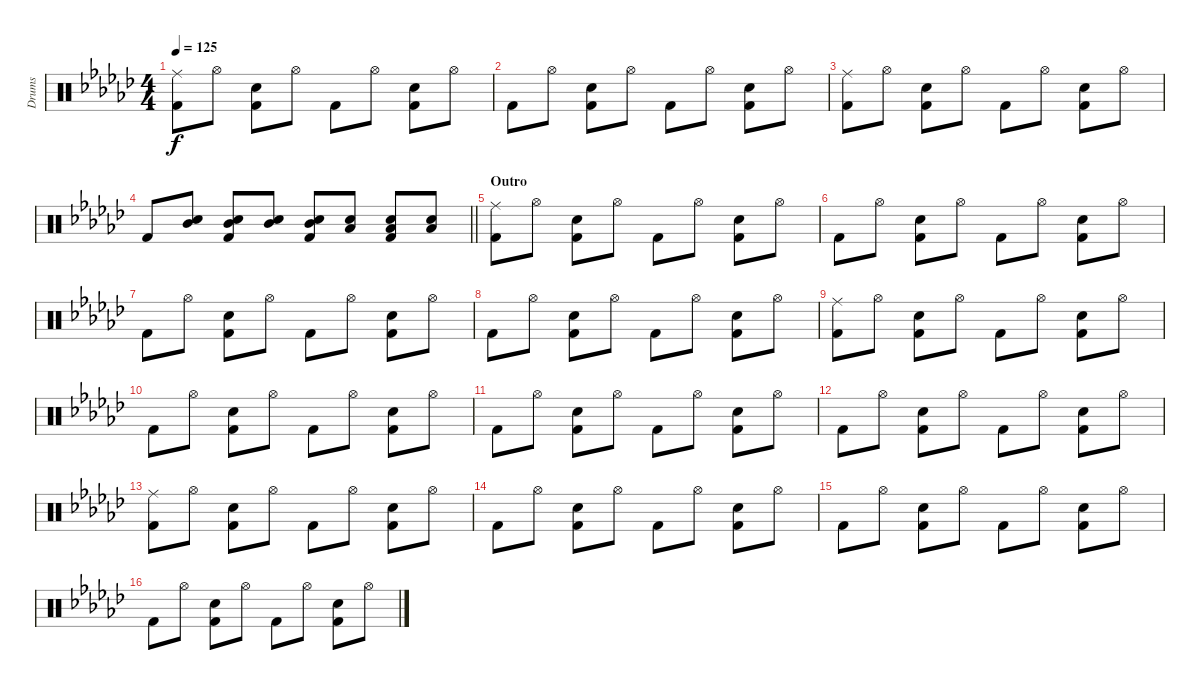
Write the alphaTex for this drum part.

\track ("Drums" "Drums") {instrument percussion}
\staff {score}
\articulation defaults
\ts (4 4)
\tempo 125
\clef neutral
\ks gb
("Ride (middle)" "Kick (hit) 2").8{dy f} "Hi-Hat (open)".8 ("Snare (hit) 2" "Kick (hit) 2").8 "Hi-Hat (open)".8 "Kick (hit) 2".8 "Hi-Hat (open)".8 ("Snare (hit) 2" "Kick (hit) 2").8 "Hi-Hat (open)".8 |
"Kick (hit) 2".8 "Hi-Hat (open)".8 ("Snare (hit) 2" "Kick (hit) 2").8 "Hi-Hat (open)".8 "Kick (hit) 2".8 "Hi-Hat (open)".8 ("Snare (hit) 2" "Kick (hit) 2").8 "Hi-Hat (open)".8 |
("Ride (middle)" "Kick (hit) 2").8 "Hi-Hat (open)".8 ("Snare (hit) 2" "Kick (hit) 2").8 "Hi-Hat (open)".8 "Kick (hit) 2".8 "Hi-Hat (open)".8 ("Snare (hit) 2" "Kick (hit) 2").8 "Hi-Hat (open)".8 |
\barLineRight lightlight "Kick (hit) 2".8
("Mid Tom (hit)" "Snare (hit) 2").8 ("Mid Tom (hit)" "Snare (hit) 2" "Kick (hit) 2").8 ("Mid Tom (hit)" "Snare (hit) 2").8 ("Mid Tom (hit)" "Snare (hit) 2" "Kick (hit) 2").8 ("Snare (hit) 2" "Low Tom (hit)").8 ("Snare (hit) 2" "Low Tom (hit)" "Kick (hit) 2").8 ("Snare (hit) 2" "Low Tom (hit)").8 |
\section ("" "Outro")
("Ride (middle)" "Kick (hit) 2").8 "Hi-Hat (open)".8 ("Snare (hit) 2" "Kick (hit) 2").8 "Hi-Hat (open)".8 "Kick (hit) 2".8 "Hi-Hat (open)".8 ("Snare (hit) 2" "Kick (hit) 2").8 "Hi-Hat (open)".8 |
"Kick (hit) 2".8 "Hi-Hat (open)".8 ("Snare (hit) 2" "Kick (hit) 2").8 "Hi-Hat (open)".8 "Kick (hit) 2".8 "Hi-Hat (open)".8 ("Snare (hit) 2" "Kick (hit) 2").8 "Hi-Hat (open)".8 |
"Kick (hit) 2".8 "Hi-Hat (open)".8 ("Snare (hit) 2" "Kick (hit) 2").8 "Hi-Hat (open)".8 "Kick (hit) 2".8 "Hi-Hat (open)".8 ("Snare (hit) 2" "Kick (hit) 2").8 "Hi-Hat (open)".8 |
"Kick (hit) 2".8 "Hi-Hat (open)".8 ("Snare (hit) 2" "Kick (hit) 2").8 "Hi-Hat (open)".8 "Kick (hit) 2".8 "Hi-Hat (open)".8 ("Snare (hit) 2" "Kick (hit) 2").8 "Hi-Hat (open)".8 |
("Ride (middle)" "Kick (hit) 2").8 "Hi-Hat (open)".8 ("Snare (hit) 2" "Kick (hit) 2").8 "Hi-Hat (open)".8 "Kick (hit) 2".8 "Hi-Hat (open)".8 ("Snare (hit) 2" "Kick (hit) 2").8 "Hi-Hat (open)".8 |
"Kick (hit) 2".8 "Hi-Hat (open)".8 ("Snare (hit) 2" "Kick (hit) 2").8 "Hi-Hat (open)".8 "Kick (hit) 2".8 "Hi-Hat (open)".8 ("Snare (hit) 2" "Kick (hit) 2").8 "Hi-Hat (open)".8 |
"Kick (hit) 2".8 "Hi-Hat (open)".8 ("Snare (hit) 2" "Kick (hit) 2").8 "Hi-Hat (open)".8 "Kick (hit) 2".8 "Hi-Hat (open)".8 ("Snare (hit) 2" "Kick (hit) 2").8 "Hi-Hat (open)".8 |
"Kick (hit) 2".8 "Hi-Hat (open)".8 ("Snare (hit) 2" "Kick (hit) 2").8 "Hi-Hat (open)".8 "Kick (hit) 2".8 "Hi-Hat (open)".8 ("Snare (hit) 2" "Kick (hit) 2").8 "Hi-Hat (open)".8 |
("Ride (middle)" "Kick (hit) 2").8 "Hi-Hat (open)".8 ("Snare (hit) 2" "Kick (hit) 2").8 "Hi-Hat (open)".8 "Kick (hit) 2".8 "Hi-Hat (open)".8 ("Snare (hit) 2" "Kick (hit) 2").8 "Hi-Hat (open)".8 |
"Kick (hit) 2".8 "Hi-Hat (open)".8 ("Snare (hit) 2" "Kick (hit) 2").8 "Hi-Hat (open)".8 "Kick (hit) 2".8 "Hi-Hat (open)".8 ("Snare (hit) 2" "Kick (hit) 2").8 "Hi-Hat (open)".8 |
"Kick (hit) 2".8 "Hi-Hat (open)".8 ("Snare (hit) 2" "Kick (hit) 2").8 "Hi-Hat (open)".8 "Kick (hit) 2".8 "Hi-Hat (open)".8 ("Snare (hit) 2" "Kick (hit) 2").8 "Hi-Hat (open)".8 |
"Kick (hit) 2".8 "Hi-Hat (open)".8 ("Snare (hit) 2" "Kick (hit) 2").8 "Hi-Hat (open)".8 "Kick (hit) 2".8 "Hi-Hat (open)".8 ("Snare (hit) 2" "Kick (hit) 2").8 "Hi-Hat (open)".8
